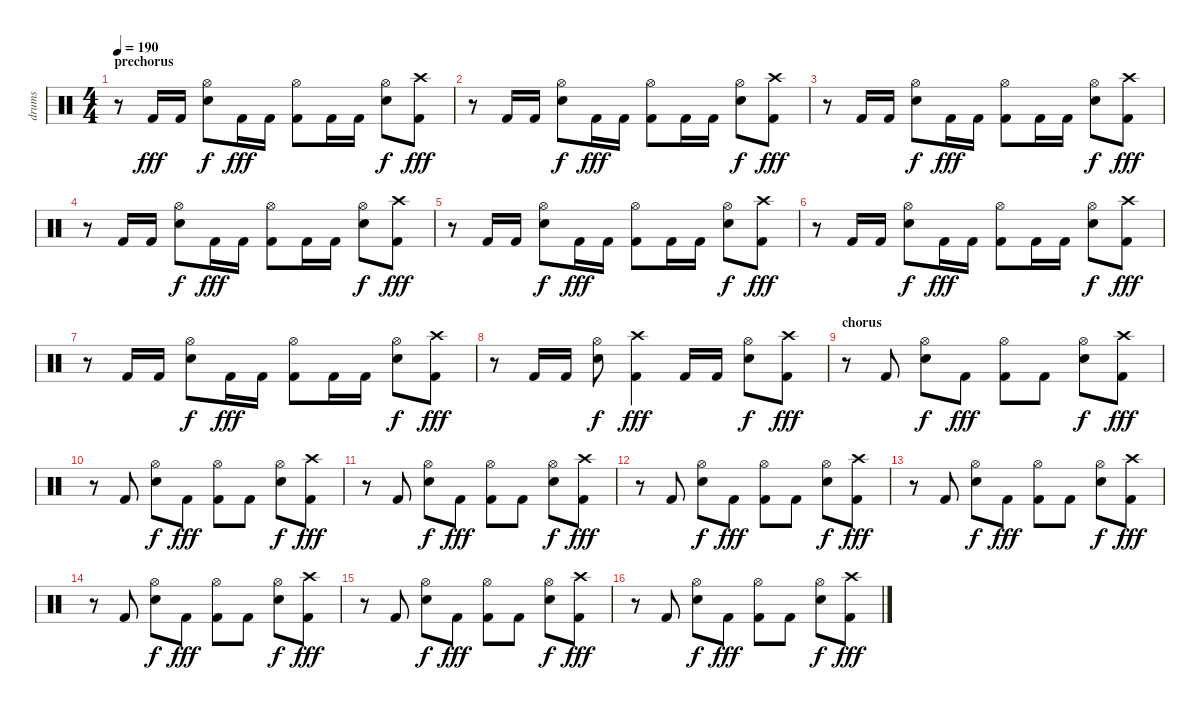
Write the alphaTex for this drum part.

\track ("drums" "drums") {instrument percussion}
\staff {score}
\articulation defaults
\ts (4 4)
\section ("" "prechorus")
\tempo 190
\clef neutral
\ks c
r.8{dy fff} "Kick (hit) 2".16 "Kick (hit) 2".16 ("Hi-Hat (open)" "Snare (hit) 2").8{dy f} "Kick (hit) 2".16{dy fff} "Kick (hit) 2".16 ("Hi-Hat (open)" "Kick (hit) 2").8 "Kick (hit) 2".16 "Kick (hit) 2".16 ("Hi-Hat (open)" "Snare (hit) 2").8{dy f} ("Crash high (hit)" "Kick (hit) 2").8{dy fff} |
r.8 "Kick (hit) 2".16 "Kick (hit) 2".16 ("Hi-Hat (open)" "Snare (hit) 2").8{dy f} "Kick (hit) 2".16{dy fff} "Kick (hit) 2".16 ("Hi-Hat (open)" "Kick (hit) 2").8 "Kick (hit) 2".16 "Kick (hit) 2".16 ("Hi-Hat (open)" "Snare (hit) 2").8{dy f} ("Crash high (hit)" "Kick (hit) 2").8{dy fff} |
r.8 "Kick (hit) 2".16 "Kick (hit) 2".16 ("Hi-Hat (open)" "Snare (hit) 2").8{dy f} "Kick (hit) 2".16{dy fff} "Kick (hit) 2".16 ("Hi-Hat (open)" "Kick (hit) 2").8 "Kick (hit) 2".16 "Kick (hit) 2".16 ("Hi-Hat (open)" "Snare (hit) 2").8{dy f} ("Crash high (hit)" "Kick (hit) 2").8{dy fff} |
r.8 "Kick (hit) 2".16 "Kick (hit) 2".16 ("Hi-Hat (open)" "Snare (hit) 2").8{dy f} "Kick (hit) 2".16{dy fff} "Kick (hit) 2".16 ("Hi-Hat (open)" "Kick (hit) 2").8 "Kick (hit) 2".16 "Kick (hit) 2".16 ("Hi-Hat (open)" "Snare (hit) 2").8{dy f} ("Crash high (hit)" "Kick (hit) 2").8{dy fff} |
r.8 "Kick (hit) 2".16 "Kick (hit) 2".16 ("Hi-Hat (open)" "Snare (hit) 2").8{dy f} "Kick (hit) 2".16{dy fff} "Kick (hit) 2".16 ("Hi-Hat (open)" "Kick (hit) 2").8 "Kick (hit) 2".16 "Kick (hit) 2".16 ("Hi-Hat (open)" "Snare (hit) 2").8{dy f} ("Crash high (hit)" "Kick (hit) 2").8{dy fff} |
r.8 "Kick (hit) 2".16 "Kick (hit) 2".16 ("Hi-Hat (open)" "Snare (hit) 2").8{dy f} "Kick (hit) 2".16{dy fff} "Kick (hit) 2".16 ("Hi-Hat (open)" "Kick (hit) 2").8 "Kick (hit) 2".16 "Kick (hit) 2".16 ("Hi-Hat (open)" "Snare (hit) 2").8{dy f} ("Crash high (hit)" "Kick (hit) 2").8{dy fff} |
r.8 "Kick (hit) 2".16 "Kick (hit) 2".16 ("Hi-Hat (open)" "Snare (hit) 2").8{dy f} "Kick (hit) 2".16{dy fff} "Kick (hit) 2".16 ("Hi-Hat (open)" "Kick (hit) 2").8 "Kick (hit) 2".16 "Kick (hit) 2".16 ("Hi-Hat (open)" "Snare (hit) 2").8{dy f} ("Crash high (hit)" "Kick (hit) 2").8{dy fff} |
r.8 "Kick (hit) 2".16 "Kick (hit) 2".16 ("Hi-Hat (open)" "Snare (hit) 2").8{dy f} ("Crash high (hit)" "Kick (hit) 2").4{dy fff} "Kick (hit) 2".16 "Kick (hit) 2".16 ("Hi-Hat (open)" "Snare (hit) 2").8{dy f} ("Crash high (hit)" "Kick (hit) 2").8{dy fff} |
\section ("" "chorus")
r.8 "Kick (hit) 2".8 ("Hi-Hat (open)" "Snare (hit) 2").8{dy f} "Kick (hit) 2".8{dy fff} ("Hi-Hat (open)" "Kick (hit) 2").8 "Kick (hit) 2".8 ("Hi-Hat (open)" "Snare (hit) 2").8{dy f} ("Crash high (hit)" "Kick (hit) 2").8{dy fff} |
r.8 "Kick (hit) 2".8 ("Hi-Hat (open)" "Snare (hit) 2").8{dy f} "Kick (hit) 2".8{dy fff} ("Hi-Hat (open)" "Kick (hit) 2").8 "Kick (hit) 2".8 ("Hi-Hat (open)" "Snare (hit) 2").8{dy f} ("Crash high (hit)" "Kick (hit) 2").8{dy fff} |
r.8 "Kick (hit) 2".8 ("Hi-Hat (open)" "Snare (hit) 2").8{dy f} "Kick (hit) 2".8{dy fff} ("Hi-Hat (open)" "Kick (hit) 2").8 "Kick (hit) 2".8 ("Hi-Hat (open)" "Snare (hit) 2").8{dy f} ("Crash high (hit)" "Kick (hit) 2").8{dy fff} |
r.8 "Kick (hit) 2".8 ("Hi-Hat (open)" "Snare (hit) 2").8{dy f} "Kick (hit) 2".8{dy fff} ("Hi-Hat (open)" "Kick (hit) 2").8 "Kick (hit) 2".8 ("Hi-Hat (open)" "Snare (hit) 2").8{dy f} ("Crash high (hit)" "Kick (hit) 2").8{dy fff} |
r.8 "Kick (hit) 2".8 ("Hi-Hat (open)" "Snare (hit) 2").8{dy f} "Kick (hit) 2".8{dy fff} ("Hi-Hat (open)" "Kick (hit) 2").8 "Kick (hit) 2".8 ("Hi-Hat (open)" "Snare (hit) 2").8{dy f} ("Crash high (hit)" "Kick (hit) 2").8{dy fff} |
r.8 "Kick (hit) 2".8 ("Hi-Hat (open)" "Snare (hit) 2").8{dy f} "Kick (hit) 2".8{dy fff} ("Hi-Hat (open)" "Kick (hit) 2").8 "Kick (hit) 2".8 ("Hi-Hat (open)" "Snare (hit) 2").8{dy f} ("Crash high (hit)" "Kick (hit) 2").8{dy fff} |
r.8 "Kick (hit) 2".8 ("Hi-Hat (open)" "Snare (hit) 2").8{dy f} "Kick (hit) 2".8{dy fff} ("Hi-Hat (open)" "Kick (hit) 2").8 "Kick (hit) 2".8 ("Hi-Hat (open)" "Snare (hit) 2").8{dy f} ("Crash high (hit)" "Kick (hit) 2").8{dy fff} |
r.8 "Kick (hit) 2".8 ("Hi-Hat (open)" "Snare (hit) 2").8{dy f} "Kick (hit) 2".8{dy fff} ("Hi-Hat (open)" "Kick (hit) 2").8 "Kick (hit) 2".8 ("Hi-Hat (open)" "Snare (hit) 2").8{dy f} ("Crash high (hit)" "Kick (hit) 2").8{dy fff}
